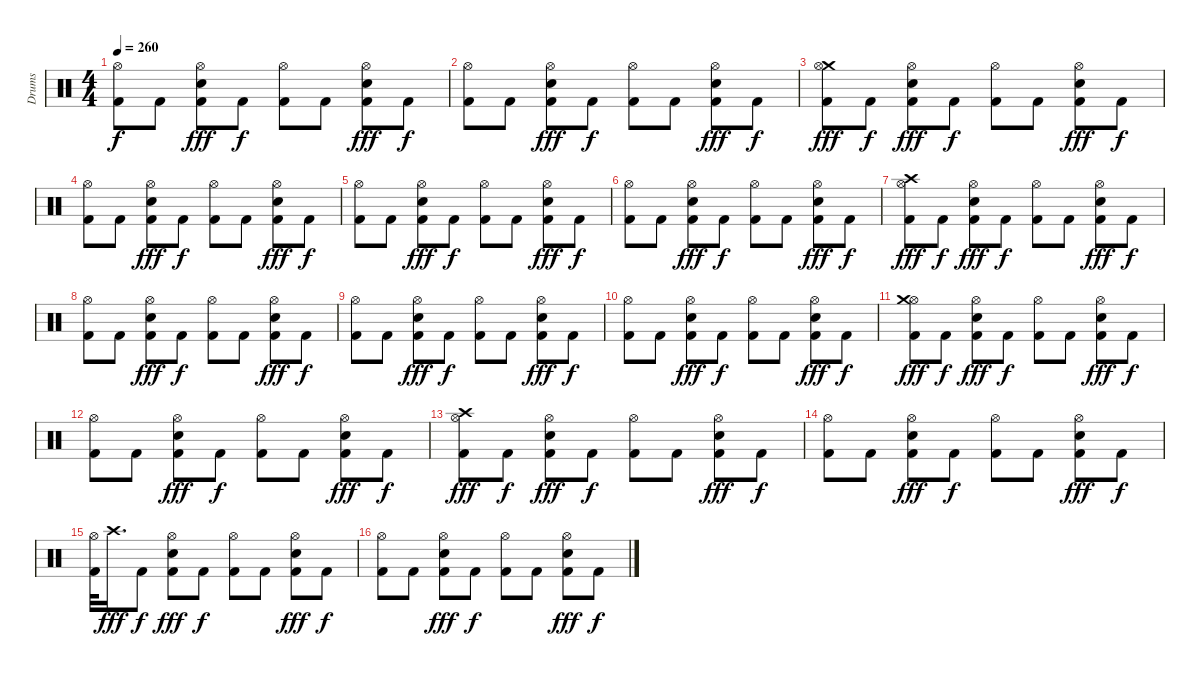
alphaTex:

\track ("Drums" "Drums") {instrument percussion}
\staff {score}
\articulation defaults
\ts (4 4)
\tempo 260
\clef neutral
\ks c
("Hi-Hat (open)" "Kick (hit) 2").8{dy f} "Kick (hit) 2".8 ("Hi-Hat (open)" "Snare (hit) 2" "Kick (hit) 2").8{dy fff} "Kick (hit) 2".8{dy f} ("Hi-Hat (open)" "Kick (hit) 2").8 "Kick (hit) 2".8 ("Hi-Hat (open)" "Snare (hit) 2" "Kick (hit) 2").8{dy fff} "Kick (hit) 2".8{dy f} |
("Hi-Hat (open)" "Kick (hit) 2").8 "Kick (hit) 2".8 ("Hi-Hat (open)" "Snare (hit) 2" "Kick (hit) 2").8{dy fff} "Kick (hit) 2".8{dy f} ("Hi-Hat (open)" "Kick (hit) 2").8 "Kick (hit) 2".8 ("Hi-Hat (open)" "Snare (hit) 2" "Kick (hit) 2").8{dy fff} "Kick (hit) 2".8{dy f} |
("Crash medium (hit)" "Hi-Hat (open)" "Kick (hit) 2").8{dy fff} "Kick (hit) 2".8{dy f} ("Hi-Hat (open)" "Snare (hit) 2" "Kick (hit) 2").8{dy fff} "Kick (hit) 2".8{dy f} ("Hi-Hat (open)" "Kick (hit) 2").8 "Kick (hit) 2".8 ("Hi-Hat (open)" "Snare (hit) 2" "Kick (hit) 2").8{dy fff} "Kick (hit) 2".8{dy f} |
("Hi-Hat (open)" "Kick (hit) 2").8 "Kick (hit) 2".8 ("Hi-Hat (open)" "Snare (hit) 2" "Kick (hit) 2").8{dy fff} "Kick (hit) 2".8{dy f} ("Hi-Hat (open)" "Kick (hit) 2").8 "Kick (hit) 2".8 ("Hi-Hat (open)" "Snare (hit) 2" "Kick (hit) 2").8{dy fff} "Kick (hit) 2".8{dy f} |
("Hi-Hat (open)" "Kick (hit) 2").8 "Kick (hit) 2".8 ("Hi-Hat (open)" "Snare (hit) 2" "Kick (hit) 2").8{dy fff} "Kick (hit) 2".8{dy f} ("Hi-Hat (open)" "Kick (hit) 2").8 "Kick (hit) 2".8 ("Hi-Hat (open)" "Snare (hit) 2" "Kick (hit) 2").8{dy fff} "Kick (hit) 2".8{dy f} |
("Hi-Hat (open)" "Kick (hit) 2").8 "Kick (hit) 2".8 ("Hi-Hat (open)" "Snare (hit) 2" "Kick (hit) 2").8{dy fff} "Kick (hit) 2".8{dy f} ("Hi-Hat (open)" "Kick (hit) 2").8 "Kick (hit) 2".8 ("Hi-Hat (open)" "Snare (hit) 2" "Kick (hit) 2").8{dy fff} "Kick (hit) 2".8{dy f} |
("Hi-Hat (open)" "Kick (hit) 2" "Crash high (hit)").8{dy fff} "Kick (hit) 2".8{dy f} ("Hi-Hat (open)" "Snare (hit) 2" "Kick (hit) 2").8{dy fff} "Kick (hit) 2".8{dy f} ("Hi-Hat (open)" "Kick (hit) 2").8 "Kick (hit) 2".8 ("Hi-Hat (open)" "Snare (hit) 2" "Kick (hit) 2").8{dy fff} "Kick (hit) 2".8{dy f} |
("Hi-Hat (open)" "Kick (hit) 2").8 "Kick (hit) 2".8 ("Hi-Hat (open)" "Snare (hit) 2" "Kick (hit) 2").8{dy fff} "Kick (hit) 2".8{dy f} ("Hi-Hat (open)" "Kick (hit) 2").8 "Kick (hit) 2".8 ("Hi-Hat (open)" "Snare (hit) 2" "Kick (hit) 2").8{dy fff} "Kick (hit) 2".8{dy f} |
("Hi-Hat (open)" "Kick (hit) 2").8 "Kick (hit) 2".8 ("Hi-Hat (open)" "Snare (hit) 2" "Kick (hit) 2").8{dy fff} "Kick (hit) 2".8{dy f} ("Hi-Hat (open)" "Kick (hit) 2").8 "Kick (hit) 2".8 ("Hi-Hat (open)" "Snare (hit) 2" "Kick (hit) 2").8{dy fff} "Kick (hit) 2".8{dy f} |
("Hi-Hat (open)" "Kick (hit) 2").8 "Kick (hit) 2".8 ("Hi-Hat (open)" "Snare (hit) 2" "Kick (hit) 2").8{dy fff} "Kick (hit) 2".8{dy f} ("Hi-Hat (open)" "Kick (hit) 2").8 "Kick (hit) 2".8 ("Hi-Hat (open)" "Snare (hit) 2" "Kick (hit) 2").8{dy fff} "Kick (hit) 2".8{dy f} |
("Hi-Hat (open)" "Kick (hit) 2" "Crash medium (hit)").8{dy fff} "Kick (hit) 2".8{dy f} ("Hi-Hat (open)" "Snare (hit) 2" "Kick (hit) 2").8{dy fff} "Kick (hit) 2".8{dy f} ("Hi-Hat (open)" "Kick (hit) 2").8 "Kick (hit) 2".8 ("Hi-Hat (open)" "Snare (hit) 2" "Kick (hit) 2").8{dy fff} "Kick (hit) 2".8{dy f} |
("Hi-Hat (open)" "Kick (hit) 2").8 "Kick (hit) 2".8 ("Hi-Hat (open)" "Snare (hit) 2" "Kick (hit) 2").8{dy fff} "Kick (hit) 2".8{dy f} ("Hi-Hat (open)" "Kick (hit) 2").8 "Kick (hit) 2".8 ("Hi-Hat (open)" "Snare (hit) 2" "Kick (hit) 2").8{dy fff} "Kick (hit) 2".8{dy f} |
("Hi-Hat (open)" "Kick (hit) 2" "Crash high (hit)").8{dy fff} "Kick (hit) 2".8{dy f} ("Hi-Hat (open)" "Snare (hit) 2" "Kick (hit) 2").8{dy fff} "Kick (hit) 2".8{dy f} ("Hi-Hat (open)" "Kick (hit) 2").8 "Kick (hit) 2".8 ("Hi-Hat (open)" "Snare (hit) 2" "Kick (hit) 2").8{dy fff} "Kick (hit) 2".8{dy f} |
("Hi-Hat (open)" "Kick (hit) 2").8 "Kick (hit) 2".8 ("Hi-Hat (open)" "Snare (hit) 2" "Kick (hit) 2").8{dy fff} "Kick (hit) 2".8{dy f} ("Hi-Hat (open)" "Kick (hit) 2").8 "Kick (hit) 2".8 ("Hi-Hat (open)" "Snare (hit) 2" "Kick (hit) 2").8{dy fff} "Kick (hit) 2".8{dy f} |
("Hi-Hat (open)" "Kick (hit) 2").32 "Crash high (hit)".16{d dy fff} "Kick (hit) 2".8{dy f} ("Hi-Hat (open)" "Snare (hit) 2" "Kick (hit) 2").8{dy fff} "Kick (hit) 2".8{dy f} ("Hi-Hat (open)" "Kick (hit) 2").8 "Kick (hit) 2".8 ("Hi-Hat (open)" "Snare (hit) 2" "Kick (hit) 2").8{dy fff} "Kick (hit) 2".8{dy f} |
("Hi-Hat (open)" "Kick (hit) 2").8 "Kick (hit) 2".8 ("Hi-Hat (open)" "Snare (hit) 2" "Kick (hit) 2").8{dy fff} "Kick (hit) 2".8{dy f} ("Hi-Hat (open)" "Kick (hit) 2").8 "Kick (hit) 2".8 ("Hi-Hat (open)" "Snare (hit) 2" "Kick (hit) 2").8{dy fff} "Kick (hit) 2".8{dy f}
